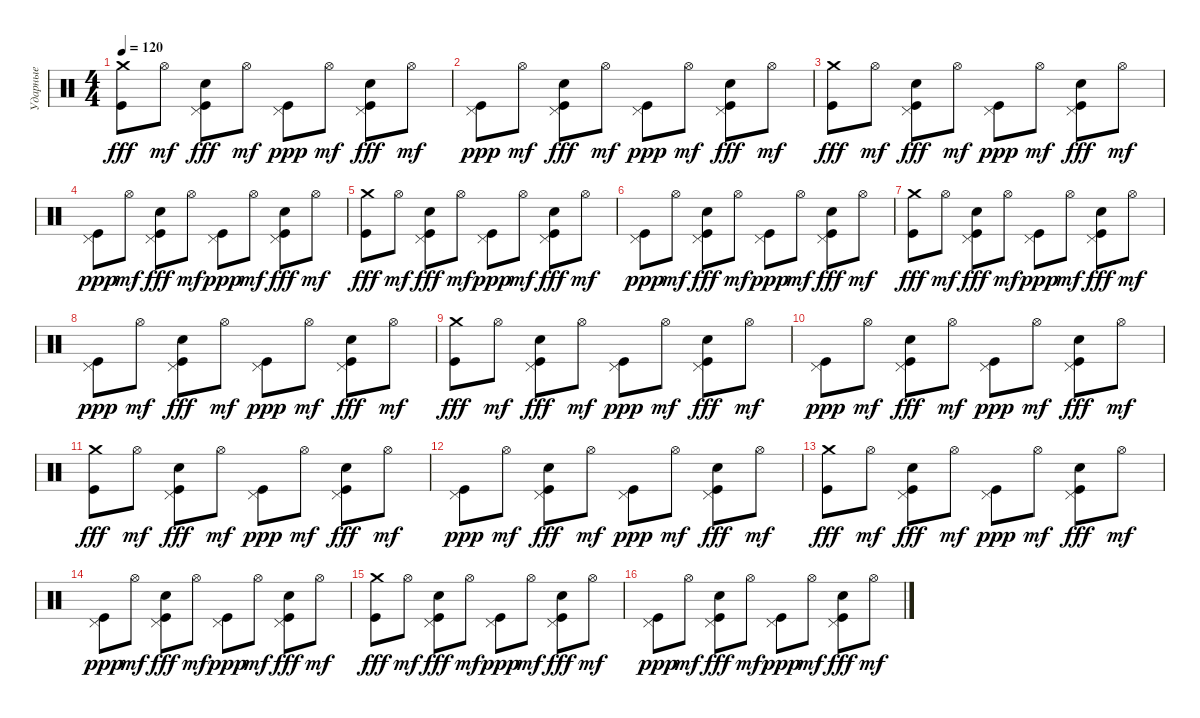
\track ("Ударные" "Ударные") {instrument percussion}
\staff {score}
\articulation defaults
\ts (4 4)
\tempo 120
\clef neutral
\ks c
("Kick (hit)" "Crash medium (hit)").8{dy fff} "Hi-Hat (open)".8{dy mf} ("Kick (hit)" "Pedal Hi-Hat (hit)" "Electric Snare (hit)").8{dy fff} "Hi-Hat (open)".8{dy mf} ("Kick (hit)" "Pedal Hi-Hat (hit)").8{dy ppp} "Hi-Hat (open)".8{dy mf} ("Kick (hit)" "Pedal Hi-Hat (hit)" "Electric Snare (hit)").8{dy fff} "Hi-Hat (open)".8{dy mf} |
("Kick (hit)" "Pedal Hi-Hat (hit)").8{dy ppp} "Hi-Hat (open)".8{dy mf} ("Kick (hit)" "Pedal Hi-Hat (hit)" "Electric Snare (hit)").8{dy fff} "Hi-Hat (open)".8{dy mf} ("Kick (hit)" "Pedal Hi-Hat (hit)").8{dy ppp} "Hi-Hat (open)".8{dy mf} ("Kick (hit)" "Pedal Hi-Hat (hit)" "Electric Snare (hit)").8{dy fff} "Hi-Hat (open)".8{dy mf} |
("Kick (hit)" "Crash medium (hit)").8{dy fff} "Hi-Hat (open)".8{dy mf} ("Kick (hit)" "Pedal Hi-Hat (hit)" "Electric Snare (hit)").8{dy fff} "Hi-Hat (open)".8{dy mf} ("Kick (hit)" "Pedal Hi-Hat (hit)").8{dy ppp} "Hi-Hat (open)".8{dy mf} ("Kick (hit)" "Pedal Hi-Hat (hit)" "Electric Snare (hit)").8{dy fff} "Hi-Hat (open)".8{dy mf} |
("Kick (hit)" "Pedal Hi-Hat (hit)").8{dy ppp} "Hi-Hat (open)".8{dy mf} ("Kick (hit)" "Pedal Hi-Hat (hit)" "Electric Snare (hit)").8{dy fff} "Hi-Hat (open)".8{dy mf} ("Kick (hit)" "Pedal Hi-Hat (hit)").8{dy ppp} "Hi-Hat (open)".8{dy mf} ("Kick (hit)" "Pedal Hi-Hat (hit)" "Electric Snare (hit)").8{dy fff} "Hi-Hat (open)".8{dy mf} |
("Kick (hit)" "Crash medium (hit)").8{dy fff} "Hi-Hat (open)".8{dy mf} ("Kick (hit)" "Pedal Hi-Hat (hit)" "Electric Snare (hit)").8{dy fff} "Hi-Hat (open)".8{dy mf} ("Kick (hit)" "Pedal Hi-Hat (hit)").8{dy ppp} "Hi-Hat (open)".8{dy mf} ("Kick (hit)" "Pedal Hi-Hat (hit)" "Electric Snare (hit)").8{dy fff} "Hi-Hat (open)".8{dy mf} |
("Kick (hit)" "Pedal Hi-Hat (hit)").8{dy ppp} "Hi-Hat (open)".8{dy mf} ("Kick (hit)" "Pedal Hi-Hat (hit)" "Electric Snare (hit)").8{dy fff} "Hi-Hat (open)".8{dy mf} ("Kick (hit)" "Pedal Hi-Hat (hit)").8{dy ppp} "Hi-Hat (open)".8{dy mf} ("Kick (hit)" "Pedal Hi-Hat (hit)" "Electric Snare (hit)").8{dy fff} "Hi-Hat (open)".8{dy mf} |
("Kick (hit)" "Crash medium (hit)").8{dy fff} "Hi-Hat (open)".8{dy mf} ("Kick (hit)" "Pedal Hi-Hat (hit)" "Electric Snare (hit)").8{dy fff} "Hi-Hat (open)".8{dy mf} ("Kick (hit)" "Pedal Hi-Hat (hit)").8{dy ppp} "Hi-Hat (open)".8{dy mf} ("Kick (hit)" "Pedal Hi-Hat (hit)" "Electric Snare (hit)").8{dy fff} "Hi-Hat (open)".8{dy mf} |
("Kick (hit)" "Pedal Hi-Hat (hit)").8{dy ppp} "Hi-Hat (open)".8{dy mf} ("Kick (hit)" "Pedal Hi-Hat (hit)" "Electric Snare (hit)").8{dy fff} "Hi-Hat (open)".8{dy mf} ("Kick (hit)" "Pedal Hi-Hat (hit)").8{dy ppp} "Hi-Hat (open)".8{dy mf} ("Kick (hit)" "Pedal Hi-Hat (hit)" "Electric Snare (hit)").8{dy fff} "Hi-Hat (open)".8{dy mf} |
("Kick (hit)" "Crash medium (hit)").8{dy fff} "Hi-Hat (open)".8{dy mf} ("Kick (hit)" "Pedal Hi-Hat (hit)" "Electric Snare (hit)").8{dy fff} "Hi-Hat (open)".8{dy mf} ("Kick (hit)" "Pedal Hi-Hat (hit)").8{dy ppp} "Hi-Hat (open)".8{dy mf} ("Kick (hit)" "Pedal Hi-Hat (hit)" "Electric Snare (hit)").8{dy fff} "Hi-Hat (open)".8{dy mf} |
("Kick (hit)" "Pedal Hi-Hat (hit)").8{dy ppp} "Hi-Hat (open)".8{dy mf} ("Kick (hit)" "Pedal Hi-Hat (hit)" "Electric Snare (hit)").8{dy fff} "Hi-Hat (open)".8{dy mf} ("Kick (hit)" "Pedal Hi-Hat (hit)").8{dy ppp} "Hi-Hat (open)".8{dy mf} ("Kick (hit)" "Pedal Hi-Hat (hit)" "Electric Snare (hit)").8{dy fff} "Hi-Hat (open)".8{dy mf} |
("Kick (hit)" "Crash medium (hit)").8{dy fff} "Hi-Hat (open)".8{dy mf} ("Kick (hit)" "Pedal Hi-Hat (hit)" "Electric Snare (hit)").8{dy fff} "Hi-Hat (open)".8{dy mf} ("Kick (hit)" "Pedal Hi-Hat (hit)").8{dy ppp} "Hi-Hat (open)".8{dy mf} ("Kick (hit)" "Pedal Hi-Hat (hit)" "Electric Snare (hit)").8{dy fff} "Hi-Hat (open)".8{dy mf} |
("Kick (hit)" "Pedal Hi-Hat (hit)").8{dy ppp} "Hi-Hat (open)".8{dy mf} ("Kick (hit)" "Pedal Hi-Hat (hit)" "Electric Snare (hit)").8{dy fff} "Hi-Hat (open)".8{dy mf} ("Kick (hit)" "Pedal Hi-Hat (hit)").8{dy ppp} "Hi-Hat (open)".8{dy mf} ("Kick (hit)" "Pedal Hi-Hat (hit)" "Electric Snare (hit)").8{dy fff} "Hi-Hat (open)".8{dy mf} |
("Kick (hit)" "Crash medium (hit)").8{dy fff} "Hi-Hat (open)".8{dy mf} ("Kick (hit)" "Pedal Hi-Hat (hit)" "Electric Snare (hit)").8{dy fff} "Hi-Hat (open)".8{dy mf} ("Kick (hit)" "Pedal Hi-Hat (hit)").8{dy ppp} "Hi-Hat (open)".8{dy mf} ("Kick (hit)" "Pedal Hi-Hat (hit)" "Electric Snare (hit)").8{dy fff} "Hi-Hat (open)".8{dy mf} |
("Kick (hit)" "Pedal Hi-Hat (hit)").8{dy ppp} "Hi-Hat (open)".8{dy mf} ("Kick (hit)" "Pedal Hi-Hat (hit)" "Electric Snare (hit)").8{dy fff} "Hi-Hat (open)".8{dy mf} ("Kick (hit)" "Pedal Hi-Hat (hit)").8{dy ppp} "Hi-Hat (open)".8{dy mf} ("Kick (hit)" "Pedal Hi-Hat (hit)" "Electric Snare (hit)").8{dy fff} "Hi-Hat (open)".8{dy mf} |
("Kick (hit)" "Crash medium (hit)").8{dy fff} "Hi-Hat (open)".8{dy mf} ("Kick (hit)" "Pedal Hi-Hat (hit)" "Electric Snare (hit)").8{dy fff} "Hi-Hat (open)".8{dy mf} ("Kick (hit)" "Pedal Hi-Hat (hit)").8{dy ppp} "Hi-Hat (open)".8{dy mf} ("Kick (hit)" "Pedal Hi-Hat (hit)" "Electric Snare (hit)").8{dy fff} "Hi-Hat (open)".8{dy mf} |
("Kick (hit)" "Pedal Hi-Hat (hit)").8{dy ppp} "Hi-Hat (open)".8{dy mf} ("Kick (hit)" "Pedal Hi-Hat (hit)" "Electric Snare (hit)").8{dy fff} "Hi-Hat (open)".8{dy mf} ("Kick (hit)" "Pedal Hi-Hat (hit)").8{dy ppp} "Hi-Hat (open)".8{dy mf} ("Kick (hit)" "Pedal Hi-Hat (hit)" "Electric Snare (hit)").8{dy fff} "Hi-Hat (open)".8{dy mf}
